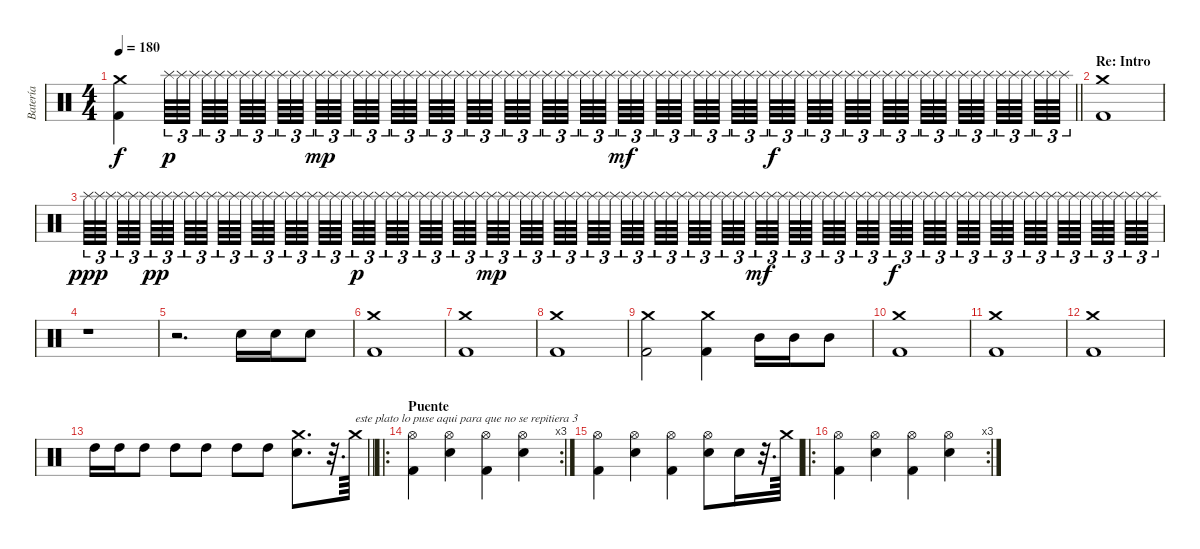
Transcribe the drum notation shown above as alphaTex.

\track ("Batería" "Batería") {instrument percussion}
\staff {score}
\articulation defaults
\ts (4 4)
\tempo 180
\clef neutral
\barLineRight lightlight
\ks c
("Crash medium (hit)" "Kick (hit) 2").4{dy f} "Splash (hit)".64{tu (3 2) dy p} "Splash (hit)".64{tu (3 2)} "Splash (hit)".64{tu (3 2) beam splitsecondary} "Splash (hit)".64{tu (3 2)} "Splash (hit)".64{tu (3 2)} "Splash (hit)".64{tu (3 2) beam splitsecondary} "Splash (hit)".64{tu (3 2)} "Splash (hit)".64{tu (3 2)} "Splash (hit)".64{tu (3 2) beam splitsecondary} "Splash (hit)".64{tu (3 2)} "Splash (hit)".64{tu (3 2)} "Splash (hit)".64{tu (3 2) beam splitsecondary} "Splash (hit)".64{tu (3 2) dy mp} "Splash (hit)".64{tu (3 2)} "Splash (hit)".64{tu (3 2) beam splitsecondary} "Splash (hit)".64{tu (3 2)} "Splash (hit)".64{tu (3 2)} "Splash (hit)".64{tu (3 2) beam splitsecondary} "Splash (hit)".64{tu (3 2)} "Splash (hit)".64{tu (3 2)} "Splash (hit)".64{tu (3 2) beam splitsecondary} "Splash (hit)".64{tu (3 2)} "Splash (hit)".64{tu (3 2)} "Splash (hit)".64{tu (3 2)} "Splash (hit)".64{tu (3 2)} "Splash (hit)".64{tu (3 2)} "Splash (hit)".64{tu (3 2) beam splitsecondary} "Splash (hit)".64{tu (3 2)} "Splash (hit)".64{tu (3 2)} "Splash (hit)".64{tu (3 2) beam splitsecondary} "Splash (hit)".64{tu (3 2)} "Splash (hit)".64{tu (3 2)} "Splash (hit)".64{tu (3 2) beam splitsecondary} "Splash (hit)".64{tu (3 2)} "Splash (hit)".64{tu (3 2)} "Splash (hit)".64{tu (3 2) beam splitsecondary} "Splash (hit)".64{tu (3 2) dy mf} "Splash (hit)".64{tu (3 2)} "Splash (hit)".64{tu (3 2) beam splitsecondary} "Splash (hit)".64{tu (3 2)} "Splash (hit)".64{tu (3 2)} "Splash (hit)".64{tu (3 2) beam splitsecondary} "Splash (hit)".64{tu (3 2)} "Splash (hit)".64{tu (3 2)} "Splash (hit)".64{tu (3 2) beam splitsecondary} "Splash (hit)".64{tu (3 2)} "Splash (hit)".64{tu (3 2)} "Splash (hit)".64{tu (3 2)} "Splash (hit)".64{tu (3 2) dy f} "Splash (hit)".64{tu (3 2)} "Splash (hit)".64{tu (3 2) beam splitsecondary} "Splash (hit)".64{tu (3 2)} "Splash (hit)".64{tu (3 2)} "Splash (hit)".64{tu (3 2) beam splitsecondary} "Splash (hit)".64{tu (3 2)} "Splash (hit)".64{tu (3 2)} "Splash (hit)".64{tu (3 2) beam splitsecondary} "Splash (hit)".64{tu (3 2)} "Splash (hit)".64{tu (3 2)} "Splash (hit)".64{tu (3 2) beam splitsecondary} "Splash (hit)".64{tu (3 2)} "Splash (hit)".64{tu (3 2)} "Splash (hit)".64{tu (3 2) beam splitsecondary} "Splash (hit)".64{tu (3 2)} "Splash (hit)".64{tu (3 2)} "Splash (hit)".64{tu (3 2) beam splitsecondary} "Splash (hit)".64{tu (3 2)} "Splash (hit)".64{tu (3 2)} "Splash (hit)".64{tu (3 2) beam splitsecondary} "Splash (hit)".64{tu (3 2)} "Splash (hit)".64{tu (3 2)} "Splash (hit)".64{tu (3 2)} |
\section ("" "Re: Intro")
("Crash medium (hit)" "Kick (hit) 2").1 |
"Splash (hit)".64{tu (3 2) dy ppp} "Splash (hit)".64{tu (3 2)} "Splash (hit)".64{tu (3 2) beam splitsecondary} "Splash (hit)".64{tu (3 2)} "Splash (hit)".64{tu (3 2)} "Splash (hit)".64{tu (3 2) beam splitsecondary} "Splash (hit)".64{tu (3 2) dy pp} "Splash (hit)".64{tu (3 2)} "Splash (hit)".64{tu (3 2) beam splitsecondary} "Splash (hit)".64{tu (3 2)} "Splash (hit)".64{tu (3 2)} "Splash (hit)".64{tu (3 2) beam splitsecondary} "Splash (hit)".64{tu (3 2)} "Splash (hit)".64{tu (3 2)} "Splash (hit)".64{tu (3 2) beam splitsecondary} "Splash (hit)".64{tu (3 2)} "Splash (hit)".64{tu (3 2)} "Splash (hit)".64{tu (3 2) beam splitsecondary} "Splash (hit)".64{tu (3 2)} "Splash (hit)".64{tu (3 2)} "Splash (hit)".64{tu (3 2) beam splitsecondary} "Splash (hit)".64{tu (3 2)} "Splash (hit)".64{tu (3 2)} "Splash (hit)".64{tu (3 2)} "Splash (hit)".64{tu (3 2) dy p} "Splash (hit)".64{tu (3 2)} "Splash (hit)".64{tu (3 2) beam splitsecondary} "Splash (hit)".64{tu (3 2)} "Splash (hit)".64{tu (3 2)} "Splash (hit)".64{tu (3 2) beam splitsecondary} "Splash (hit)".64{tu (3 2)} "Splash (hit)".64{tu (3 2)} "Splash (hit)".64{tu (3 2) beam splitsecondary} "Splash (hit)".64{tu (3 2)} "Splash (hit)".64{tu (3 2)} "Splash (hit)".64{tu (3 2) beam splitsecondary} "Splash (hit)".64{tu (3 2) dy mp} "Splash (hit)".64{tu (3 2)} "Splash (hit)".64{tu (3 2) beam splitsecondary} "Splash (hit)".64{tu (3 2)} "Splash (hit)".64{tu (3 2)} "Splash (hit)".64{tu (3 2) beam splitsecondary} "Splash (hit)".64{tu (3 2)} "Splash (hit)".64{tu (3 2)} "Splash (hit)".64{tu (3 2) beam splitsecondary} "Splash (hit)".64{tu (3 2)} "Splash (hit)".64{tu (3 2)} "Splash (hit)".64{tu (3 2)} "Splash (hit)".64{tu (3 2)} "Splash (hit)".64{tu (3 2)} "Splash (hit)".64{tu (3 2) beam splitsecondary} "Splash (hit)".64{tu (3 2)} "Splash (hit)".64{tu (3 2)} "Splash (hit)".64{tu (3 2) beam splitsecondary} "Splash (hit)".64{tu (3 2)} "Splash (hit)".64{tu (3 2)} "Splash (hit)".64{tu (3 2) beam splitsecondary} "Splash (hit)".64{tu (3 2)} "Splash (hit)".64{tu (3 2)} "Splash (hit)".64{tu (3 2) beam splitsecondary} "Splash (hit)".64{tu (3 2) dy mf} "Splash (hit)".64{tu (3 2)} "Splash (hit)".64{tu (3 2) beam splitsecondary} "Splash (hit)".64{tu (3 2)} "Splash (hit)".64{tu (3 2)} "Splash (hit)".64{tu (3 2) beam splitsecondary} "Splash (hit)".64{tu (3 2)} "Splash (hit)".64{tu (3 2)} "Splash (hit)".64{tu (3 2) beam splitsecondary} "Splash (hit)".64{tu (3 2)} "Splash (hit)".64{tu (3 2)} "Splash (hit)".64{tu (3 2)} "Splash (hit)".64{tu (3 2) dy f} "Splash (hit)".64{tu (3 2)} "Splash (hit)".64{tu (3 2) beam splitsecondary} "Splash (hit)".64{tu (3 2)} "Splash (hit)".64{tu (3 2)} "Splash (hit)".64{tu (3 2) beam splitsecondary} "Splash (hit)".64{tu (3 2)} "Splash (hit)".64{tu (3 2)} "Splash (hit)".64{tu (3 2) beam splitsecondary} "Splash (hit)".64{tu (3 2)} "Splash (hit)".64{tu (3 2)} "Splash (hit)".64{tu (3 2) beam splitsecondary} "Splash (hit)".64{tu (3 2)} "Splash (hit)".64{tu (3 2)} "Splash (hit)".64{tu (3 2) beam splitsecondary} "Splash (hit)".64{tu (3 2)} "Splash (hit)".64{tu (3 2)} "Splash (hit)".64{tu (3 2) beam splitsecondary} "Splash (hit)".64{tu (3 2)} "Splash (hit)".64{tu (3 2)} "Splash (hit)".64{tu (3 2) beam splitsecondary} "Splash (hit)".64{tu (3 2)} "Splash (hit)".64{tu (3 2)} "Splash (hit)".64{tu (3 2)} |
r.1 |
r.2{d} "Snare (hit) 2".16 "Snare (hit) 2".16 "Snare (hit) 2".8 |
("Crash medium (hit)" "Kick (hit) 2").1 |
("Crash medium (hit)" "Kick (hit) 2").1 |
("Crash medium (hit)" "Kick (hit) 2").1 |
("Crash medium (hit)" "Kick (hit) 2").2 ("Crash medium (hit)" "Kick (hit) 2").4 "Mid Tom (hit)".16 "Mid Tom (hit)".16 "Mid Tom (hit)".8 |
("Crash medium (hit)" "Kick (hit) 2").1 |
("Crash medium (hit)" "Kick (hit) 2").1 |
("Crash medium (hit)" "Kick (hit) 2").1 |
\barLineRight lightlight "High Tom (hit)".16 "High Tom (hit)".16 "High Tom (hit)".8 "High Tom (hit)".8 "High Tom (hit)".8 "High Tom (hit)".8 "High Tom (hit)".8
("Crash medium (hit)" "Snare (hit) 2").8{d} r.32{d} "Crash medium (hit)".64{txt "este plato lo puse aqui para que no se repitiera 3"} |
\ro
\rc 3
\section ("" "Puente")
("Hi-Hat (open)" "Kick (hit) 2").4 ("Hi-Hat (open)" "Snare (hit) 2").4 ("Hi-Hat (open)" "Kick (hit) 2").4 ("Hi-Hat (open)" "Snare (hit) 2").4 |
("Hi-Hat (open)" "Kick (hit) 2").4 ("Hi-Hat (open)" "Snare (hit) 2").4 ("Hi-Hat (open)" "Kick (hit) 2").4 ("Hi-Hat (open)" "Snare (hit) 2").8 "Snare (hit) 2".16 r.32{d} "Crash medium (hit)".64 |
\ro
\rc 3
("Hi-Hat (open)" "Kick (hit) 2").4 ("Hi-Hat (open)" "Snare (hit) 2").4 ("Hi-Hat (open)" "Kick (hit) 2").4 ("Hi-Hat (open)" "Snare (hit) 2").4
